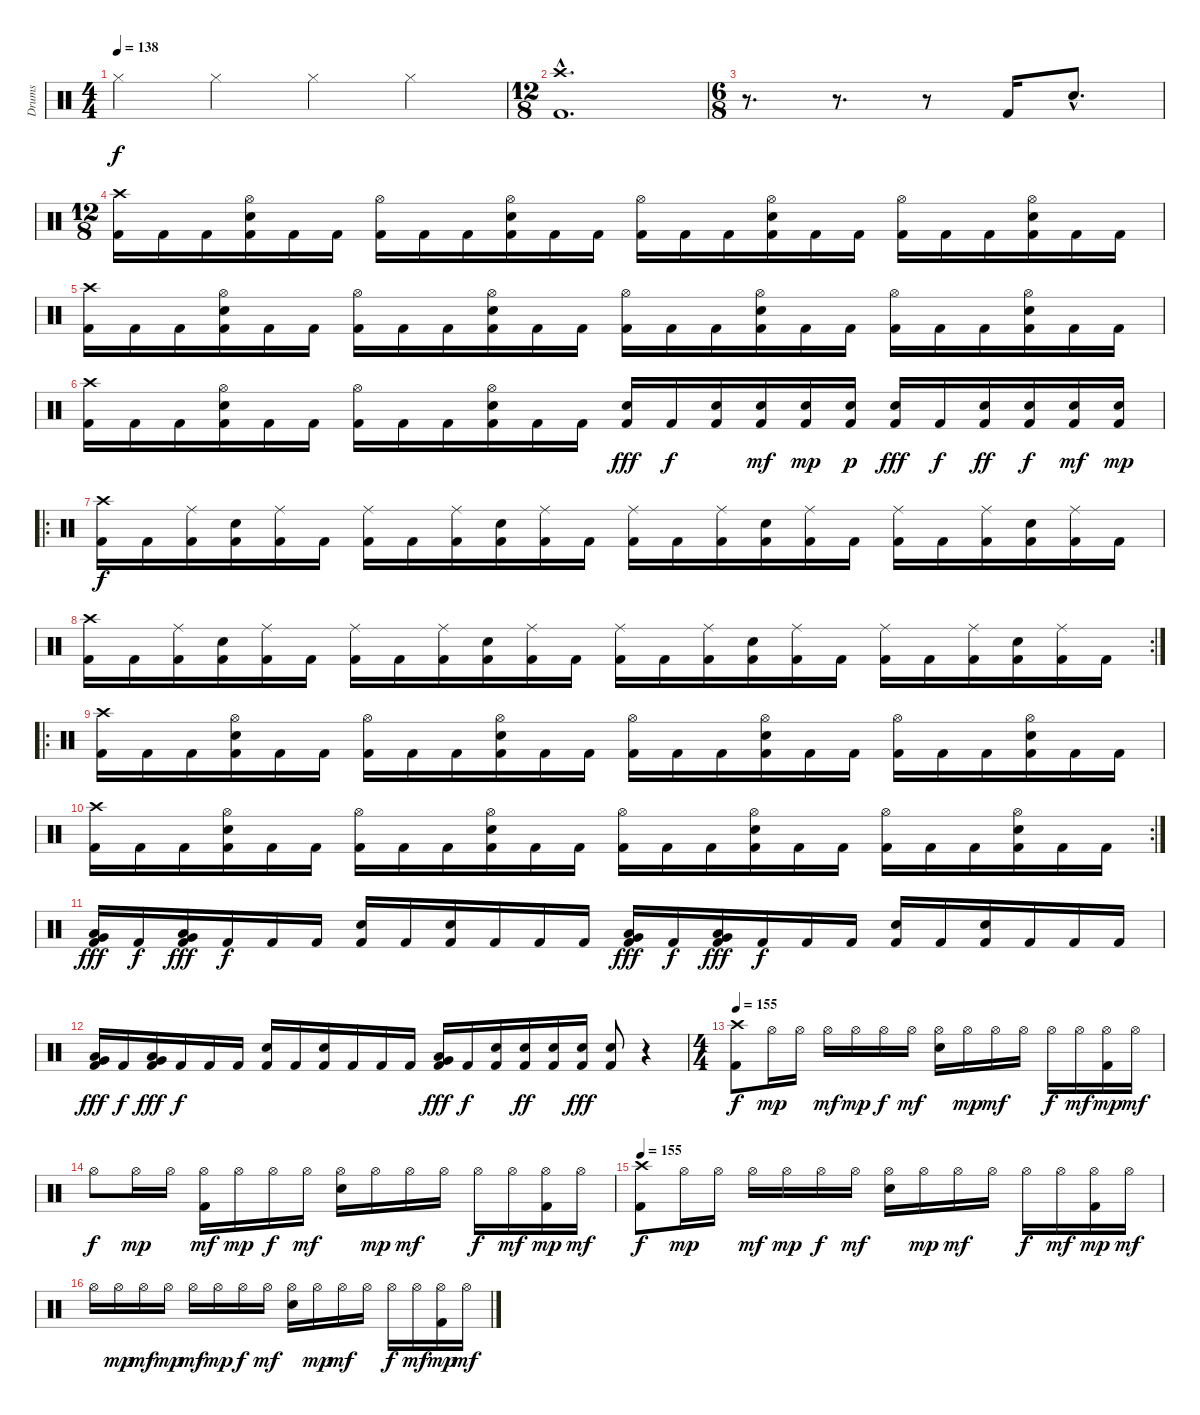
\track ("Drums" "Drums") {instrument percussion}
\staff {score}
\articulation defaults
\ts (4 4)
\tempo 138
\clef neutral
\ks c "Hi-Hat (closed)".4{dy f} "Hi-Hat (closed)".4 "Hi-Hat (closed)".4 "Hi-Hat (closed)".4
|
\ts (12 8)
("Crash high (hit)"{hac} "Kick (hit) 2"{hac}).1{d} |
\ts (6 8)
r.8{d} r.8{d} r.8 "Kick (hit) 2".16 "Electric Snare (hit)"{hac}.8{d} |
\ts (12 8)
("Crash high (hit)" "Kick (hit) 2").16 "Kick (hit) 2".16 "Kick (hit) 2".16 ("Hi-Hat (open)" "Electric Snare (hit)" "Kick (hit) 2").16 "Kick (hit) 2".16 "Kick (hit) 2".16 ("Hi-Hat (open)" "Kick (hit) 2").16 "Kick (hit) 2".16 "Kick (hit) 2".16 ("Hi-Hat (open)" "Electric Snare (hit)" "Kick (hit) 2").16 "Kick (hit) 2".16 "Kick (hit) 2".16 ("Hi-Hat (open)" "Kick (hit) 2").16 "Kick (hit) 2".16 "Kick (hit) 2".16 ("Hi-Hat (open)" "Electric Snare (hit)" "Kick (hit) 2").16 "Kick (hit) 2".16 "Kick (hit) 2".16 ("Hi-Hat (open)" "Kick (hit) 2").16 "Kick (hit) 2".16 "Kick (hit) 2".16 ("Hi-Hat (open)" "Electric Snare (hit)" "Kick (hit) 2").16 "Kick (hit) 2".16 "Kick (hit) 2".16 |
("Crash high (hit)" "Kick (hit) 2").16 "Kick (hit) 2".16 "Kick (hit) 2".16 ("Hi-Hat (open)" "Electric Snare (hit)" "Kick (hit) 2").16 "Kick (hit) 2".16 "Kick (hit) 2".16 ("Hi-Hat (open)" "Kick (hit) 2").16 "Kick (hit) 2".16 "Kick (hit) 2".16 ("Hi-Hat (open)" "Electric Snare (hit)" "Kick (hit) 2").16 "Kick (hit) 2".16 "Kick (hit) 2".16 ("Hi-Hat (open)" "Kick (hit) 2").16 "Kick (hit) 2".16 "Kick (hit) 2".16 ("Hi-Hat (open)" "Electric Snare (hit)" "Kick (hit) 2").16 "Kick (hit) 2".16 "Kick (hit) 2".16 ("Hi-Hat (open)" "Kick (hit) 2").16 "Kick (hit) 2".16 "Kick (hit) 2".16 ("Hi-Hat (open)" "Electric Snare (hit)" "Kick (hit) 2").16 "Kick (hit) 2".16 "Kick (hit) 2".16 |
("Crash high (hit)" "Kick (hit) 2").16 "Kick (hit) 2".16 "Kick (hit) 2".16 ("Hi-Hat (open)" "Electric Snare (hit)" "Kick (hit) 2").16 "Kick (hit) 2".16 "Kick (hit) 2".16 ("Hi-Hat (open)" "Kick (hit) 2").16 "Kick (hit) 2".16 "Kick (hit) 2".16 ("Hi-Hat (open)" "Electric Snare (hit)" "Kick (hit) 2").16 "Kick (hit) 2".16 "Kick (hit) 2".16 ("Electric Snare (hit)" "Kick (hit) 2").16{dy fff} "Kick (hit) 2".16{dy f} ("Electric Snare (hit)" "Kick (hit) 2").16 ("Electric Snare (hit)" "Kick (hit) 2").16{dy mf} ("Electric Snare (hit)" "Kick (hit) 2").16{dy mp} ("Electric Snare (hit)" "Kick (hit) 2").16{dy p} ("Electric Snare (hit)" "Kick (hit) 2").16{dy fff} "Kick (hit) 2".16{dy f} ("Electric Snare (hit)" "Kick (hit) 2").16{dy ff} ("Electric Snare (hit)" "Kick (hit) 2").16{dy f} ("Electric Snare (hit)" "Kick (hit) 2").16{dy mf} ("Electric Snare (hit)" "Kick (hit) 2").16{dy mp} |
\ro
("Crash high (hit)" "Kick (hit) 2").16{dy f} "Kick (hit) 2".16 ("Ride (middle)" "Kick (hit) 2").16 ("Electric Snare (hit)" "Kick (hit) 2").16 ("Ride (middle)" "Kick (hit) 2").16 "Kick (hit) 2".16 ("Ride (middle)" "Kick (hit) 2").16 "Kick (hit) 2".16 ("Ride (middle)" "Kick (hit) 2").16 ("Electric Snare (hit)" "Kick (hit) 2").16 ("Ride (middle)" "Kick (hit) 2").16 "Kick (hit) 2".16 ("Ride (middle)" "Kick (hit) 2").16 "Kick (hit) 2".16 ("Ride (middle)" "Kick (hit) 2").16 ("Electric Snare (hit)" "Kick (hit) 2").16 ("Ride (middle)" "Kick (hit) 2").16 "Kick (hit) 2".16 ("Ride (middle)" "Kick (hit) 2").16 "Kick (hit) 2".16 ("Ride (middle)" "Kick (hit) 2").16 ("Electric Snare (hit)" "Kick (hit) 2").16 ("Ride (middle)" "Kick (hit) 2").16 "Kick (hit) 2".16 |
\rc 2
("Crash high (hit)" "Kick (hit) 2").16 "Kick (hit) 2".16 ("Ride (middle)" "Kick (hit) 2").16 ("Electric Snare (hit)" "Kick (hit) 2").16 ("Ride (middle)" "Kick (hit) 2").16 "Kick (hit) 2".16 ("Ride (middle)" "Kick (hit) 2").16 "Kick (hit) 2".16 ("Ride (middle)" "Kick (hit) 2").16 ("Electric Snare (hit)" "Kick (hit) 2").16 ("Ride (middle)" "Kick (hit) 2").16 "Kick (hit) 2".16 ("Ride (middle)" "Kick (hit) 2").16 "Kick (hit) 2".16 ("Ride (middle)" "Kick (hit) 2").16 ("Electric Snare (hit)" "Kick (hit) 2").16 ("Ride (middle)" "Kick (hit) 2").16 "Kick (hit) 2".16 ("Ride (middle)" "Kick (hit) 2").16 "Kick (hit) 2".16 ("Ride (middle)" "Kick (hit) 2").16 ("Electric Snare (hit)" "Kick (hit) 2").16 ("Ride (middle)" "Kick (hit) 2").16 "Kick (hit) 2".16 |
\ro
("Crash high (hit)" "Kick (hit) 2").16 "Kick (hit) 2".16 "Kick (hit) 2".16 ("Hi-Hat (open)" "Electric Snare (hit)" "Kick (hit) 2").16 "Kick (hit) 2".16 "Kick (hit) 2".16 ("Hi-Hat (open)" "Kick (hit) 2").16 "Kick (hit) 2".16 "Kick (hit) 2".16 ("Hi-Hat (open)" "Electric Snare (hit)" "Kick (hit) 2").16 "Kick (hit) 2".16 "Kick (hit) 2".16 ("Hi-Hat (open)" "Kick (hit) 2").16 "Kick (hit) 2".16 "Kick (hit) 2".16 ("Hi-Hat (open)" "Electric Snare (hit)" "Kick (hit) 2").16 "Kick (hit) 2".16 "Kick (hit) 2".16 ("Hi-Hat (open)" "Kick (hit) 2").16 "Kick (hit) 2".16 "Kick (hit) 2".16 ("Hi-Hat (open)" "Electric Snare (hit)" "Kick (hit) 2").16 "Kick (hit) 2".16 "Kick (hit) 2".16 |
\rc 2
("Crash high (hit)" "Kick (hit) 2").16 "Kick (hit) 2".16 "Kick (hit) 2".16 ("Hi-Hat (open)" "Electric Snare (hit)" "Kick (hit) 2").16 "Kick (hit) 2".16 "Kick (hit) 2".16 ("Hi-Hat (open)" "Kick (hit) 2").16 "Kick (hit) 2".16 "Kick (hit) 2".16 ("Hi-Hat (open)" "Electric Snare (hit)" "Kick (hit) 2").16 "Kick (hit) 2".16 "Kick (hit) 2".16 ("Hi-Hat (open)" "Kick (hit) 2").16 "Kick (hit) 2".16 "Kick (hit) 2".16 ("Hi-Hat (open)" "Electric Snare (hit)" "Kick (hit) 2").16 "Kick (hit) 2".16 "Kick (hit) 2".16 ("Hi-Hat (open)" "Kick (hit) 2").16 "Kick (hit) 2".16 "Kick (hit) 2".16 ("Hi-Hat (open)" "Electric Snare (hit)" "Kick (hit) 2").16 "Kick (hit) 2".16 "Kick (hit) 2".16 |
("Low Tom (hit)" "Very Low Tom (hit)" "Kick (hit) 2").16{dy fff} "Kick (hit) 2".16{dy f} ("Low Tom (hit)" "Very Low Tom (hit)" "Kick (hit) 2").16{dy fff} "Kick (hit) 2".16{dy f} "Kick (hit) 2".16 "Kick (hit) 2".16 ("Electric Snare (hit)" "Kick (hit) 2").16 "Kick (hit) 2".16 ("Electric Snare (hit)" "Kick (hit) 2").16 "Kick (hit) 2".16 "Kick (hit) 2".16 "Kick (hit) 2".16 ("Very Low Tom (hit)" "Low Floor Tom (hit)" "Kick (hit) 2").16{dy fff} "Kick (hit) 2".16{dy f} ("Very Low Tom (hit)" "Low Floor Tom (hit)" "Kick (hit) 2").16{dy fff} "Kick (hit) 2".16{dy f} "Kick (hit) 2".16 "Kick (hit) 2".16 ("Electric Snare (hit)" "Kick (hit) 2").16 "Kick (hit) 2".16 ("Electric Snare (hit)" "Kick (hit) 2").16 "Kick (hit) 2".16 "Kick (hit) 2".16 "Kick (hit) 2".16 |
("Low Tom (hit)" "Very Low Tom (hit)" "Kick (hit) 2").16{dy fff} "Kick (hit) 2".16{dy f} ("Low Tom (hit)" "Very Low Tom (hit)" "Kick (hit) 2").16{dy fff} "Kick (hit) 2".16{dy f} "Kick (hit) 2".16 "Kick (hit) 2".16 ("Electric Snare (hit)" "Kick (hit) 2").16 "Kick (hit) 2".16 ("Electric Snare (hit)" "Kick (hit) 2").16 "Kick (hit) 2".16 "Kick (hit) 2".16 "Kick (hit) 2".16 ("Very Low Tom (hit)" "Low Floor Tom (hit)" "Kick (hit) 2").16{dy fff} "Kick (hit) 2".16{dy f} ("Electric Snare (hit)" "Kick (hit) 2").16 ("Electric Snare (hit)" "Kick (hit) 2").16{dy ff} ("Electric Snare (hit)" "Kick (hit) 2").16 ("Electric Snare (hit)" "Kick (hit) 2").16{dy fff} ("Electric Snare (hit)" "Kick (hit) 2").8 r.4 |
\ts (4 4)
\tempo 155
("Crash high (hit)" "Kick (hit) 2").8{dy f} "Hi-Hat (open)".16{dy mp} "Hi-Hat (open)".16 "Hi-Hat (open)".16{dy mf} "Hi-Hat (open)".16{dy mp} "Hi-Hat (open)".16{dy f} "Hi-Hat (open)".16{dy mf} ("Hi-Hat (open)" "Electric Snare (hit)").16 "Hi-Hat (open)".16{dy mp} "Hi-Hat (open)".16{dy mf} "Hi-Hat (open)".16 "Hi-Hat (open)".16{dy f} "Hi-Hat (open)".16{dy mf} ("Hi-Hat (open)" "Kick (hit) 2").16{dy mp} "Hi-Hat (open)".16{dy mf} |
"Hi-Hat (open)".8{dy f} "Hi-Hat (open)".16{dy mp} "Hi-Hat (open)".16 ("Hi-Hat (open)" "Kick (hit) 2").16{dy mf} "Hi-Hat (open)".16{dy mp} "Hi-Hat (open)".16{dy f} "Hi-Hat (open)".16{dy mf} ("Hi-Hat (open)" "Electric Snare (hit)").16 "Hi-Hat (open)".16{dy mp} "Hi-Hat (open)".16{dy mf} "Hi-Hat (open)".16 "Hi-Hat (open)".16{dy f} "Hi-Hat (open)".16{dy mf} ("Hi-Hat (open)" "Kick (hit) 2").16{dy mp} "Hi-Hat (open)".16{dy mf} |
\tempo 155
("Crash high (hit)" "Kick (hit) 2").8{dy f} "Hi-Hat (open)".16{dy mp} "Hi-Hat (open)".16 "Hi-Hat (open)".16{dy mf} "Hi-Hat (open)".16{dy mp} "Hi-Hat (open)".16{dy f} "Hi-Hat (open)".16{dy mf} ("Hi-Hat (open)" "Electric Snare (hit)").16 "Hi-Hat (open)".16{dy mp} "Hi-Hat (open)".16{dy mf} "Hi-Hat (open)".16 "Hi-Hat (open)".16{dy f} "Hi-Hat (open)".16{dy mf} ("Hi-Hat (open)" "Kick (hit) 2").16{dy mp} "Hi-Hat (open)".16{dy mf} |
"Hi-Hat (open)".16 "Hi-Hat (open)".16{dy mp} "Hi-Hat (open)".16{dy mf} "Hi-Hat (open)".16{dy mp} "Hi-Hat (open)".16{dy mf} "Hi-Hat (open)".16{dy mp} "Hi-Hat (open)".16{dy f} "Hi-Hat (open)".16{dy mf} ("Hi-Hat (open)" "Electric Snare (hit)").16 "Hi-Hat (open)".16{dy mp} "Hi-Hat (open)".16{dy mf} "Hi-Hat (open)".16 "Hi-Hat (open)".16{dy f} "Hi-Hat (open)".16{dy mf} ("Hi-Hat (open)" "Kick (hit) 2").16{dy mp} "Hi-Hat (open)".16{dy mf}
